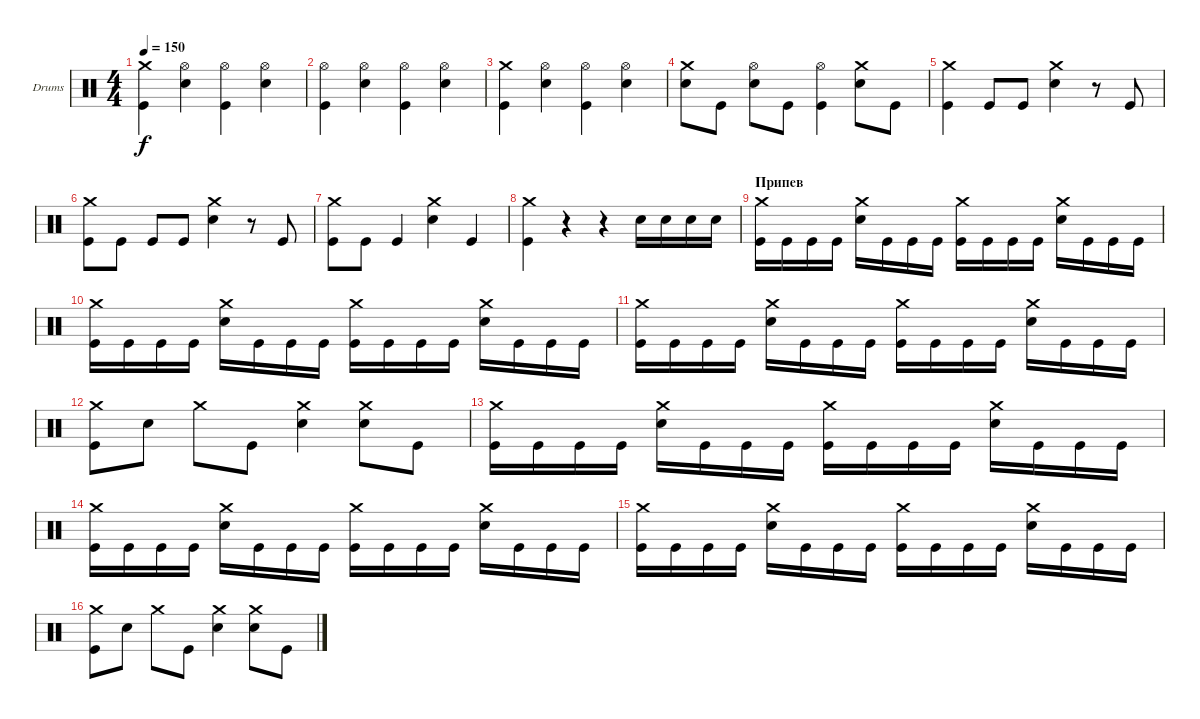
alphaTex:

\defaultSystemsLayout 4
\bracketExtendMode groupsimilarinstruments
\firstSystemTrackNameOrientation horizontal
\otherSystemsTrackNameOrientation horizontal
\track ("Drumkit" "Drums") {instrument percussion}
\staff {score}
\articulation defaults
\ts (4 4)
\tempo 150
\clef neutral
\ks c
("Kick (hit)" "Crash medium (hit)").4{dy f} ("Hi-Hat (open)" "Snare (hit) 2").4 ("Hi-Hat (open)" "Kick (hit)").4 ("Hi-Hat (open)" "Snare (hit) 2").4 |
("Hi-Hat (open)" "Kick (hit)").4 ("Snare (hit) 2" "Hi-Hat (open)").4 ("Kick (hit)" "Hi-Hat (open)").4 ("Snare (hit) 2" "Hi-Hat (open)").4 |
("Kick (hit)" "Crash medium (hit)").4 ("Hi-Hat (open)" "Snare (hit) 2").4 ("Hi-Hat (open)" "Kick (hit)").4 ("Hi-Hat (open)" "Snare (hit) 2").4 |
("Crash medium (hit)" "Snare (hit) 2").8 "Kick (hit)".8 ("Snare (hit) 2" "Hi-Hat (open)").8 "Kick (hit)".8 ("Kick (hit)" "Hi-Hat (open)").4 ("Snare (hit) 2" "Crash medium (hit)").8 "Kick (hit)".8 |
("Crash medium (hit)" "Kick (hit)").4 "Kick (hit)".8 "Kick (hit)".8 ("Snare (hit) 2" "Crash medium (hit)").4 r.8 "Kick (hit)".8 |
("Kick (hit)" "Crash medium (hit)").8 "Kick (hit)".8 "Kick (hit)".8 "Kick (hit)".8 ("Snare (hit) 2" "Crash medium (hit)").4 r.8 "Kick (hit)".8 |
("Kick (hit)" "Crash medium (hit)").8 "Kick (hit)".8 "Kick (hit)".4 ("Snare (hit) 2" "Crash medium (hit)").4 "Kick (hit)".4 |
("Crash medium (hit)" "Kick (hit)").4 r.4 r.4 "Snare (hit) 2".16 "Snare (hit) 2".16 "Snare (hit) 2".16 "Snare (hit) 2".16 |
\section ("" "Припев")
("Kick (hit)" "Crash medium (hit)").16 "Kick (hit)".16 "Kick (hit)".16 "Kick (hit)".16 ("Snare (hit) 2" "Crash medium (hit)").16 "Kick (hit)".16 "Kick (hit)".16 "Kick (hit)".16 ("Kick (hit)" "Crash medium (hit)").16 "Kick (hit)".16 "Kick (hit)".16 "Kick (hit)".16 ("Snare (hit) 2" "Crash medium (hit)").16 "Kick (hit)".16 "Kick (hit)".16 "Kick (hit)".16 |
("Kick (hit)" "Crash medium (hit)").16 "Kick (hit)".16 "Kick (hit)".16 "Kick (hit)".16 ("Snare (hit) 2" "Crash medium (hit)").16 "Kick (hit)".16 "Kick (hit)".16 "Kick (hit)".16 ("Kick (hit)" "Crash medium (hit)").16 "Kick (hit)".16 "Kick (hit)".16 "Kick (hit)".16 ("Snare (hit) 2" "Crash medium (hit)").16 "Kick (hit)".16 "Kick (hit)".16 "Kick (hit)".16 |
("Kick (hit)" "Crash medium (hit)").16 "Kick (hit)".16 "Kick (hit)".16 "Kick (hit)".16 ("Snare (hit) 2" "Crash medium (hit)").16 "Kick (hit)".16 "Kick (hit)".16 "Kick (hit)".16 ("Kick (hit)" "Crash medium (hit)").16 "Kick (hit)".16 "Kick (hit)".16 "Kick (hit)".16 ("Snare (hit) 2" "Crash medium (hit)").16 "Kick (hit)".16 "Kick (hit)".16 "Kick (hit)".16 |
("Crash medium (hit)" "Kick (hit)").8 "Snare (hit) 2".8 "Crash medium (hit)".8 "Kick (hit)".8 ("Snare (hit) 2" "Crash medium (hit)").4 ("Snare (hit) 2" "Crash medium (hit)").8 "Kick (hit)".8 |
("Kick (hit)" "Crash medium (hit)").16 "Kick (hit)".16 "Kick (hit)".16 "Kick (hit)".16 ("Snare (hit) 2" "Crash medium (hit)").16 "Kick (hit)".16 "Kick (hit)".16 "Kick (hit)".16 ("Kick (hit)" "Crash medium (hit)").16 "Kick (hit)".16 "Kick (hit)".16 "Kick (hit)".16 ("Snare (hit) 2" "Crash medium (hit)").16 "Kick (hit)".16 "Kick (hit)".16 "Kick (hit)".16 |
("Kick (hit)" "Crash medium (hit)").16 "Kick (hit)".16 "Kick (hit)".16 "Kick (hit)".16 ("Snare (hit) 2" "Crash medium (hit)").16 "Kick (hit)".16 "Kick (hit)".16 "Kick (hit)".16 ("Kick (hit)" "Crash medium (hit)").16 "Kick (hit)".16 "Kick (hit)".16 "Kick (hit)".16 ("Snare (hit) 2" "Crash medium (hit)").16 "Kick (hit)".16 "Kick (hit)".16 "Kick (hit)".16 |
("Kick (hit)" "Crash medium (hit)").16 "Kick (hit)".16 "Kick (hit)".16 "Kick (hit)".16 ("Snare (hit) 2" "Crash medium (hit)").16 "Kick (hit)".16 "Kick (hit)".16 "Kick (hit)".16 ("Kick (hit)" "Crash medium (hit)").16 "Kick (hit)".16 "Kick (hit)".16 "Kick (hit)".16 ("Snare (hit) 2" "Crash medium (hit)").16 "Kick (hit)".16 "Kick (hit)".16 "Kick (hit)".16 |
("Crash medium (hit)" "Kick (hit)").8 "Snare (hit) 2".8 "Crash medium (hit)".8 "Kick (hit)".8 ("Snare (hit) 2" "Crash medium (hit)").4 ("Snare (hit) 2" "Crash medium (hit)").8 "Kick (hit)".8
